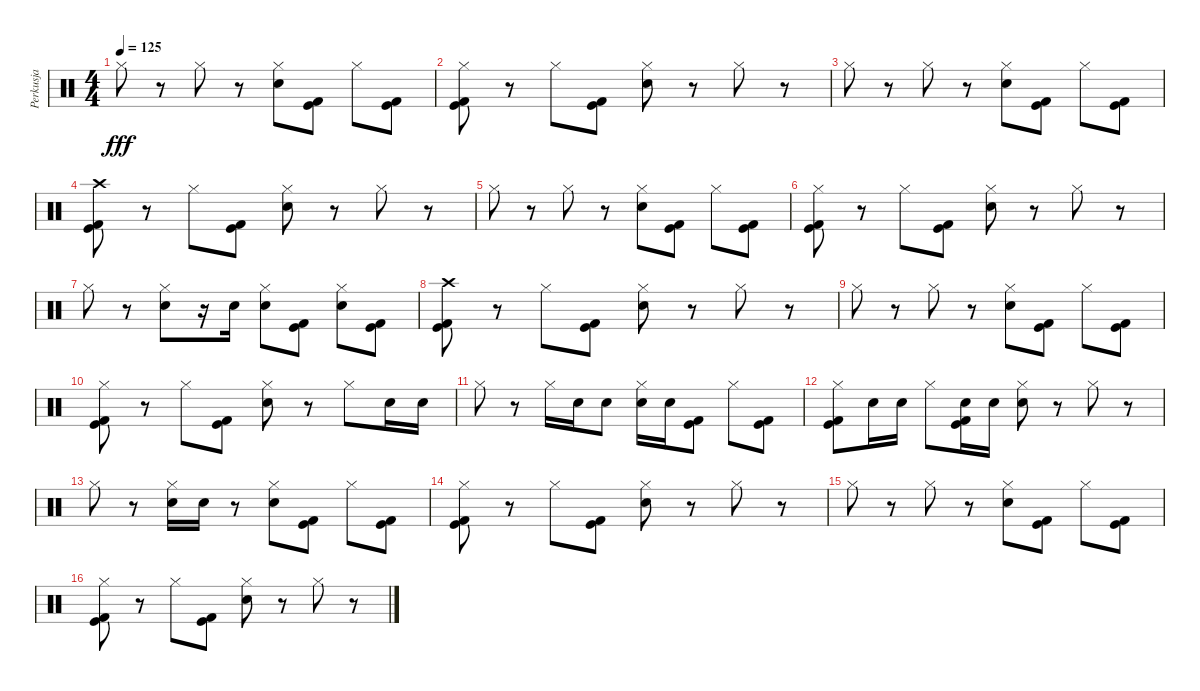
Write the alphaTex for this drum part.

\track ("Perkusja" "Perkusja") {instrument percussion}
\staff {score}
\articulation defaults
\ts (4 4)
\tempo 125
\clef neutral
\ks c "Hi-Hat (closed)".8{dy fff}
r.8 "Hi-Hat (closed)".8 r.8 ("Hi-Hat (closed)" "Electric Snare (hit)").8 ("Kick (hit)" "Kick (hit) 2").8 "Hi-Hat (closed)".8 ("Kick (hit)" "Kick (hit) 2").8 |
("Hi-Hat (closed)" "Kick (hit)" "Kick (hit) 2").8 r.8 "Hi-Hat (closed)".8 ("Kick (hit)" "Kick (hit) 2").8 ("Hi-Hat (closed)" "Electric Snare (hit)").8 r.8 "Hi-Hat (closed)".8 r.8 |
"Hi-Hat (closed)".8 r.8 "Hi-Hat (closed)".8 r.8 ("Hi-Hat (closed)" "Electric Snare (hit)").8 ("Kick (hit)" "Kick (hit) 2").8 "Hi-Hat (closed)".8 ("Kick (hit)" "Kick (hit) 2").8 |
("Crash high (hit)" "Kick (hit)" "Kick (hit) 2").8 r.8 "Hi-Hat (closed)".8 ("Kick (hit)" "Kick (hit) 2").8 ("Hi-Hat (closed)" "Electric Snare (hit)").8 r.8 "Hi-Hat (closed)".8 r.8 |
"Hi-Hat (closed)".8 r.8 "Hi-Hat (closed)".8 r.8 ("Hi-Hat (closed)" "Electric Snare (hit)").8 ("Kick (hit)" "Kick (hit) 2").8 "Hi-Hat (closed)".8 ("Kick (hit)" "Kick (hit) 2").8 |
("Hi-Hat (closed)" "Kick (hit)" "Kick (hit) 2").8 r.8 "Hi-Hat (closed)".8 ("Kick (hit)" "Kick (hit) 2").8 ("Hi-Hat (closed)" "Electric Snare (hit)").8 r.8 "Hi-Hat (closed)".8 r.8 |
"Hi-Hat (closed)".8 r.8 ("Hi-Hat (closed)" "Electric Snare (hit)").8 r.16 "Electric Snare (hit)".16 ("Hi-Hat (closed)" "Electric Snare (hit)").8 ("Kick (hit)" "Kick (hit) 2").8 ("Hi-Hat (closed)" "Electric Snare (hit)").8 ("Kick (hit)" "Kick (hit) 2").8 |
("Crash high (hit)" "Kick (hit)" "Kick (hit) 2").8 r.8 "Hi-Hat (closed)".8 ("Kick (hit)" "Kick (hit) 2").8 ("Hi-Hat (closed)" "Electric Snare (hit)").8 r.8 "Hi-Hat (closed)".8 r.8 |
"Hi-Hat (closed)".8 r.8 "Hi-Hat (closed)".8 r.8 ("Hi-Hat (closed)" "Electric Snare (hit)").8 ("Kick (hit)" "Kick (hit) 2").8 "Hi-Hat (closed)".8 ("Kick (hit)" "Kick (hit) 2").8 |
("Hi-Hat (closed)" "Kick (hit)" "Kick (hit) 2").8 r.8 "Hi-Hat (closed)".8 ("Kick (hit)" "Kick (hit) 2").8 ("Hi-Hat (closed)" "Electric Snare (hit)").8 r.8 "Hi-Hat (closed)".8 "Electric Snare (hit)".16 "Electric Snare (hit)".16 |
"Hi-Hat (closed)".8 r.8 "Hi-Hat (closed)".16 "Electric Snare (hit)".16 "Electric Snare (hit)".8 ("Hi-Hat (closed)" "Electric Snare (hit)").16 "Electric Snare (hit)".16 ("Kick (hit)" "Kick (hit) 2").8 "Hi-Hat (closed)".8 ("Kick (hit)" "Kick (hit) 2").8 |
("Hi-Hat (closed)" "Kick (hit)" "Kick (hit) 2").8 "Electric Snare (hit)".16 "Electric Snare (hit)".16 "Hi-Hat (closed)".8 ("Electric Snare (hit)" "Kick (hit)" "Kick (hit) 2").16 "Electric Snare (hit)".16 ("Hi-Hat (closed)" "Electric Snare (hit)").8 r.8 "Hi-Hat (closed)".8 r.8 |
"Hi-Hat (closed)".8 r.8 ("Hi-Hat (closed)" "Electric Snare (hit)").16 "Electric Snare (hit)".16 r.8 ("Hi-Hat (closed)" "Electric Snare (hit)").8 ("Kick (hit)" "Kick (hit) 2").8 "Hi-Hat (closed)".8 ("Kick (hit)" "Kick (hit) 2").8 |
("Hi-Hat (closed)" "Kick (hit)" "Kick (hit) 2").8 r.8 "Hi-Hat (closed)".8 ("Kick (hit)" "Kick (hit) 2").8 ("Hi-Hat (closed)" "Electric Snare (hit)").8 r.8 "Hi-Hat (closed)".8 r.8 |
"Hi-Hat (closed)".8 r.8 "Hi-Hat (closed)".8 r.8 ("Hi-Hat (closed)" "Electric Snare (hit)").8 ("Kick (hit)" "Kick (hit) 2").8 "Hi-Hat (closed)".8 ("Kick (hit)" "Kick (hit) 2").8 |
("Hi-Hat (closed)" "Kick (hit)" "Kick (hit) 2").8 r.8 "Hi-Hat (closed)".8 ("Kick (hit)" "Kick (hit) 2").8 ("Hi-Hat (closed)" "Electric Snare (hit)").8 r.8 "Hi-Hat (closed)".8 r.8
